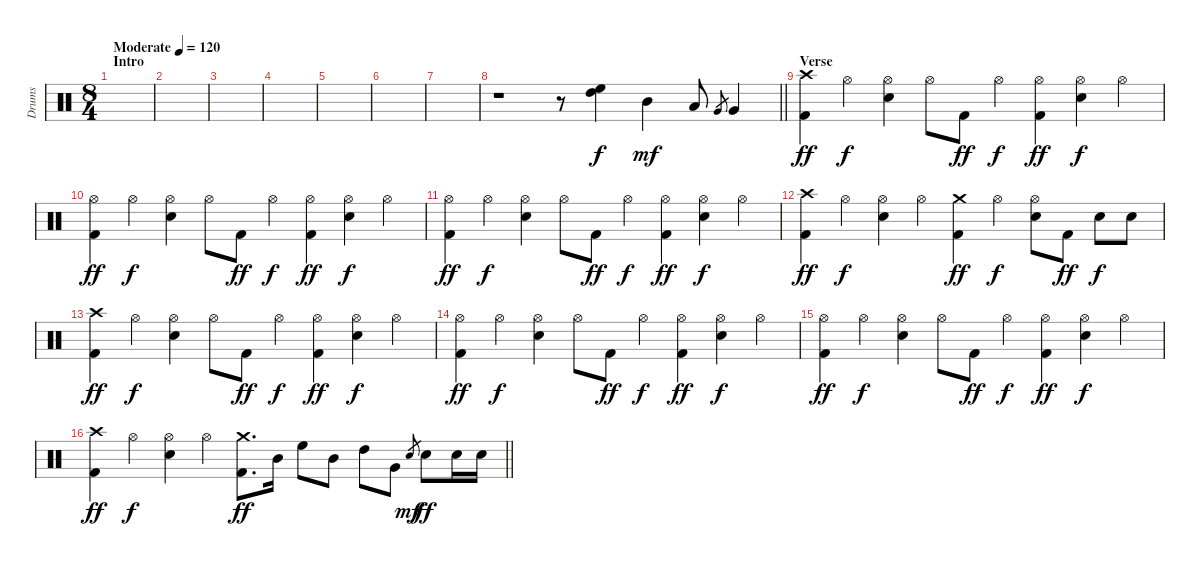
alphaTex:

\track ("Drums" "Drums") {instrument percussion}
\staff {score}
\articulation defaults
\ts (8 4)
\section ("" "Intro")
\tempo (120 "Moderate")
\clef neutral
\ks c
|
|
|
|
|
|
|
\barLineRight lightlight
r.1 r.8 ("High Tom (hit)" "High Floor Tom (hit)").4 "Mid Tom (hit)".4{dy mf} "Low Tom (hit)".8 "Very Low Tom (hit)".8{gr} "Very Low Tom (hit)".4 |
\section ("" "Verse")
("Crash high (hit)" "Kick (hit) 2").4{dy ff} "Hi-Hat (open)".4{dy f} ("Hi-Hat (open)" "Electric Snare (hit)").4 "Hi-Hat (open)".8 "Kick (hit) 2".8{dy ff} "Hi-Hat (open)".4{dy f} ("Hi-Hat (open)" "Kick (hit) 2").4{dy ff} ("Hi-Hat (open)" "Electric Snare (hit)").4{dy f} "Hi-Hat (open)".4 |
("Hi-Hat (open)" "Kick (hit) 2").4{dy ff} "Hi-Hat (open)".4{dy f} ("Hi-Hat (open)" "Electric Snare (hit)").4 "Hi-Hat (open)".8 "Kick (hit) 2".8{dy ff} "Hi-Hat (open)".4{dy f} ("Hi-Hat (open)" "Kick (hit) 2").4{dy ff} ("Hi-Hat (open)" "Electric Snare (hit)").4{dy f} "Hi-Hat (open)".4 |
("Hi-Hat (open)" "Kick (hit) 2").4{dy ff} "Hi-Hat (open)".4{dy f} ("Hi-Hat (open)" "Electric Snare (hit)").4 "Hi-Hat (open)".8 "Kick (hit) 2".8{dy ff} "Hi-Hat (open)".4{dy f} ("Hi-Hat (open)" "Kick (hit) 2").4{dy ff} ("Hi-Hat (open)" "Electric Snare (hit)").4{dy f} "Hi-Hat (open)".4 |
("Crash high (hit)" "Kick (hit) 2").4{dy ff} "Hi-Hat (open)".4{dy f} ("Hi-Hat (open)" "Electric Snare (hit)").4 "Hi-Hat (open)".4 ("Crash medium (hit)" "Kick (hit) 2").4{dy ff} "Hi-Hat (open)".4{dy f} ("Hi-Hat (open)" "Electric Snare (hit)").8 "Kick (hit) 2".8{dy ff} "Electric Snare (hit)".8{dy f} "Electric Snare (hit)".8 |
("Crash high (hit)" "Kick (hit) 2").4{dy ff} "Hi-Hat (open)".4{dy f} ("Hi-Hat (open)" "Electric Snare (hit)").4 "Hi-Hat (open)".8 "Kick (hit) 2".8{dy ff} "Hi-Hat (open)".4{dy f} ("Hi-Hat (open)" "Kick (hit) 2").4{dy ff} ("Hi-Hat (open)" "Electric Snare (hit)").4{dy f} "Hi-Hat (open)".4 |
("Hi-Hat (open)" "Kick (hit) 2").4{dy ff} "Hi-Hat (open)".4{dy f} ("Hi-Hat (open)" "Electric Snare (hit)").4 "Hi-Hat (open)".8 "Kick (hit) 2".8{dy ff} "Hi-Hat (open)".4{dy f} ("Hi-Hat (open)" "Kick (hit) 2").4{dy ff} ("Hi-Hat (open)" "Electric Snare (hit)").4{dy f} "Hi-Hat (open)".4 |
("Hi-Hat (open)" "Kick (hit) 2").4{dy ff} "Hi-Hat (open)".4{dy f} ("Hi-Hat (open)" "Electric Snare (hit)").4 "Hi-Hat (open)".8 "Kick (hit) 2".8{dy ff} "Hi-Hat (open)".4{dy f} ("Hi-Hat (open)" "Kick (hit) 2").4{dy ff} ("Hi-Hat (open)" "Electric Snare (hit)").4{dy f} "Hi-Hat (open)".4 |
\barLineRight lightlight
("Crash high (hit)" "Kick (hit) 2").4{dy ff} "Hi-Hat (open)".4{dy f} ("Hi-Hat (open)" "Electric Snare (hit)").4 "Hi-Hat (open)".4 ("Crash medium (hit)" "Kick (hit) 2").8{d dy ff} "Mid Tom (hit)".16 "High Floor Tom (hit)".8 "Mid Tom (hit)".8 "High Tom (hit)".8 "Very Low Tom (hit)".8 "Electric Snare (hit)".8{gr dy mf} "Electric Snare (hit)".8{dy ff} "Electric Snare (hit)".16 "Electric Snare (hit)".16
